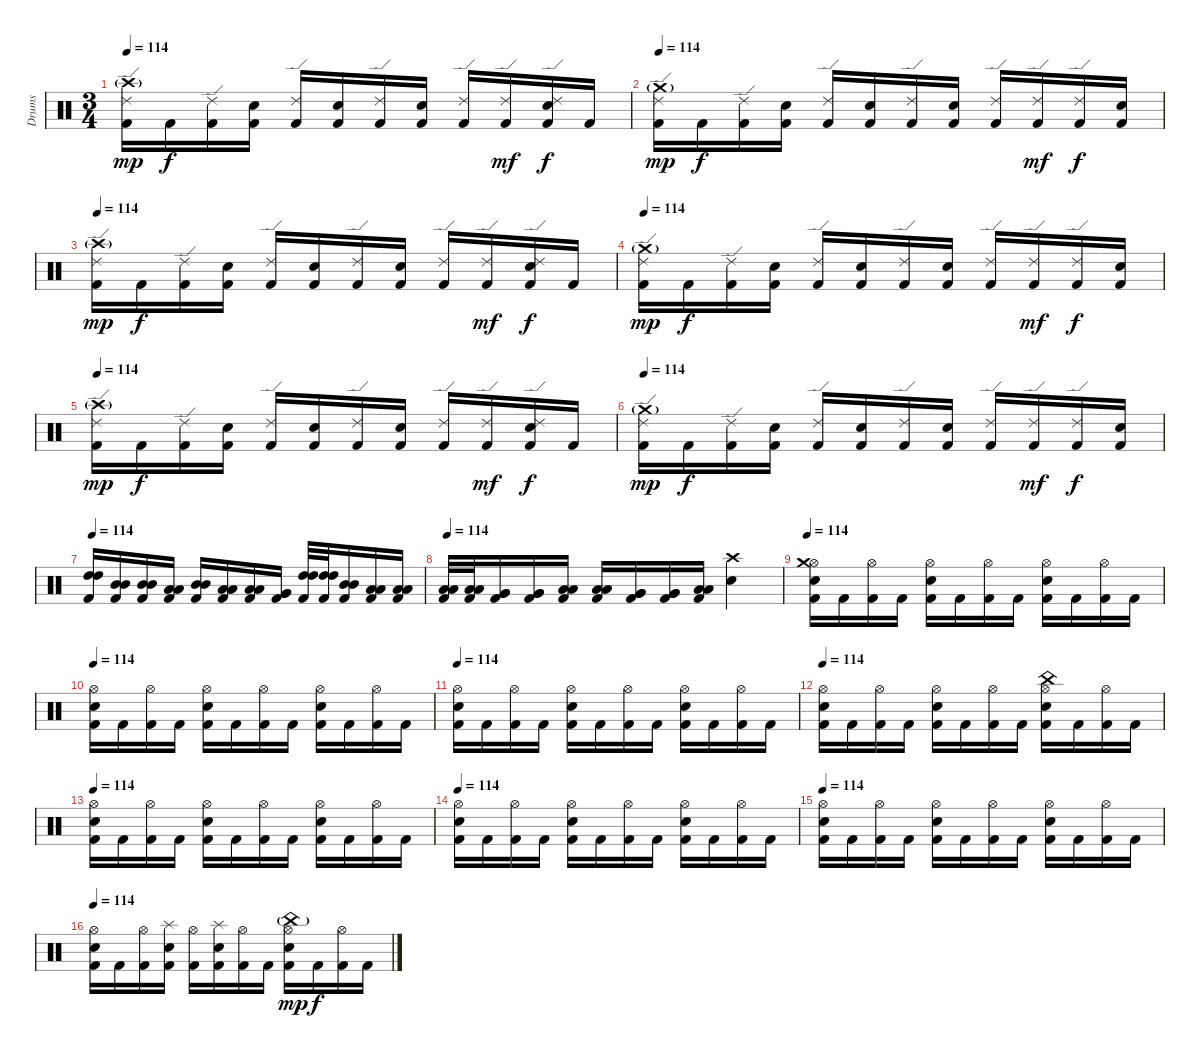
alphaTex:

\track ("Drums" "Drums") {instrument percussion}
\staff {score}
\articulation defaults
\ts (3 4)
\tempo 114
\clef neutral
\ks c
("Kick (hit) 2" "Ride (edge) 2" "Crash high (hit)"{g}).16{dy mp} "Kick (hit) 2".16{dy f} ("Kick (hit) 2" "Ride (edge) 2").16 ("Kick (hit) 2" "Electric Snare (hit)").16 ("Kick (hit) 2" "Ride (edge) 2").16 ("Kick (hit) 2" "Electric Snare (hit)").16 ("Kick (hit) 2" "Ride (edge) 2").16 ("Kick (hit) 2" "Electric Snare (hit)").16 ("Kick (hit) 2" "Ride (edge) 2").16 ("Kick (hit) 2" "Ride (edge) 2").16{dy mf} ("Kick (hit) 2" "Electric Snare (hit)" "Ride (edge) 2").16{dy f} "Kick (hit) 2".16 |
\tempo 114
("Kick (hit) 2" "Ride (edge) 2" "Crash medium (hit)"{g}).16{dy mp} "Kick (hit) 2".16{dy f} ("Kick (hit) 2" "Ride (edge) 2").16 ("Kick (hit) 2" "Electric Snare (hit)").16 ("Kick (hit) 2" "Ride (edge) 2").16 ("Kick (hit) 2" "Electric Snare (hit)").16 ("Kick (hit) 2" "Ride (edge) 2").16 ("Kick (hit) 2" "Electric Snare (hit)").16 ("Kick (hit) 2" "Ride (edge) 2").16 ("Kick (hit) 2" "Ride (edge) 2").16{dy mf} ("Kick (hit) 2" "Ride (edge) 2").16{dy f} ("Kick (hit) 2" "Electric Snare (hit)").16 |
\tempo 114
("Kick (hit) 2" "Ride (edge) 2" "Crash high (hit)"{g}).16{dy mp} "Kick (hit) 2".16{dy f} ("Kick (hit) 2" "Ride (edge) 2").16 ("Kick (hit) 2" "Electric Snare (hit)").16 ("Kick (hit) 2" "Ride (edge) 2").16 ("Kick (hit) 2" "Electric Snare (hit)").16 ("Kick (hit) 2" "Ride (edge) 2").16 ("Kick (hit) 2" "Electric Snare (hit)").16 ("Kick (hit) 2" "Ride (edge) 2").16 ("Kick (hit) 2" "Ride (edge) 2").16{dy mf} ("Kick (hit) 2" "Electric Snare (hit)" "Ride (edge) 2").16{dy f} "Kick (hit) 2".16 |
\tempo 114
("Kick (hit) 2" "Ride (edge) 2" "Crash medium (hit)"{g}).16{dy mp} "Kick (hit) 2".16{dy f} ("Kick (hit) 2" "Ride (edge) 2").16 ("Kick (hit) 2" "Electric Snare (hit)").16 ("Kick (hit) 2" "Ride (edge) 2").16 ("Kick (hit) 2" "Electric Snare (hit)").16 ("Kick (hit) 2" "Ride (edge) 2").16 ("Kick (hit) 2" "Electric Snare (hit)").16 ("Kick (hit) 2" "Ride (edge) 2").16 ("Kick (hit) 2" "Ride (edge) 2").16{dy mf} ("Kick (hit) 2" "Ride (edge) 2").16{dy f} ("Kick (hit) 2" "Electric Snare (hit)").16 |
\tempo 114
("Kick (hit) 2" "Ride (edge) 2" "Crash high (hit)"{g}).16{dy mp} "Kick (hit) 2".16{dy f} ("Kick (hit) 2" "Ride (edge) 2").16 ("Kick (hit) 2" "Electric Snare (hit)").16 ("Kick (hit) 2" "Ride (edge) 2").16 ("Kick (hit) 2" "Electric Snare (hit)").16 ("Kick (hit) 2" "Ride (edge) 2").16 ("Kick (hit) 2" "Electric Snare (hit)").16 ("Kick (hit) 2" "Ride (edge) 2").16 ("Kick (hit) 2" "Ride (edge) 2").16{dy mf} ("Kick (hit) 2" "Electric Snare (hit)" "Ride (edge) 2").16{dy f} "Kick (hit) 2".16 |
\tempo 114
("Kick (hit) 2" "Ride (edge) 2" "Crash medium (hit)"{g}).16{dy mp} "Kick (hit) 2".16{dy f} ("Kick (hit) 2" "Ride (edge) 2").16 ("Kick (hit) 2" "Electric Snare (hit)").16 ("Kick (hit) 2" "Ride (edge) 2").16 ("Kick (hit) 2" "Electric Snare (hit)").16 ("Kick (hit) 2" "Ride (edge) 2").16 ("Kick (hit) 2" "Electric Snare (hit)").16 ("Kick (hit) 2" "Ride (edge) 2").16 ("Kick (hit) 2" "Ride (edge) 2").16{dy mf} ("Kick (hit) 2" "Ride (edge) 2").16{dy f} ("Kick (hit) 2" "Electric Snare (hit)").16 |
\tempo 114
("Kick (hit) 2" "High Tom (hit)" "High Tom (hit)").16 ("Kick (hit) 2" "Mid Tom (hit)" "Mid Tom (hit)").16 ("Kick (hit) 2" "Mid Tom (hit)" "Mid Tom (hit)").16 ("Kick (hit) 2" "Low Tom (hit)" "Low Tom (hit)").16 ("Kick (hit) 2" "Mid Tom (hit)" "Mid Tom (hit)").16 ("Kick (hit) 2" "Low Tom (hit)" "Low Tom (hit)").16 ("Kick (hit) 2" "Low Tom (hit)" "Low Tom (hit)").16 ("Kick (hit) 2" "Very Low Tom (hit)" "Very Low Tom (hit)").16 ("Kick (hit) 2" "High Tom (hit)" "High Tom (hit)").32 ("Kick (hit) 2" "High Tom (hit)" "High Tom (hit)").32 ("Kick (hit) 2" "Mid Tom (hit)" "Mid Tom (hit)").16 ("Kick (hit) 2" "Low Tom (hit)" "Low Tom (hit)").16 ("Kick (hit) 2" "Low Tom (hit)" "Low Tom (hit)").16 |
\tempo 114
("Kick (hit) 2" "Low Tom (hit)" "Low Tom (hit)").32 ("Kick (hit) 2" "Low Tom (hit)" "Low Tom (hit)").32 ("Kick (hit) 2" "Very Low Tom (hit)" "Very Low Tom (hit)").16 ("Kick (hit) 2" "Very Low Tom (hit)" "Very Low Tom (hit)").16 ("Kick (hit) 2" "Low Floor Tom (hit)" "Low Floor Tom (hit)").16 ("Kick (hit) 2" "Low Tom (hit)" "Low Tom (hit)").16 ("Kick (hit) 2" "Very Low Tom (hit)" "Very Low Tom (hit)").16 ("Kick (hit) 2" "Very Low Tom (hit)" "Very Low Tom (hit)").16 ("Kick (hit) 2" "Low Floor Tom (hit)" "Low Floor Tom (hit)").16 ("Electric Snare (hit)" "Crash high (hit)").4 |
\tempo 114
("Kick (hit) 2" "Electric Snare (hit)" "Hi-Hat (open)" "Crash medium (hit)").16 "Kick (hit) 2".16 ("Kick (hit) 2" "Hi-Hat (open)").16 "Kick (hit) 2".16 ("Kick (hit) 2" "Electric Snare (hit)" "Hi-Hat (open)").16 "Kick (hit) 2".16 ("Kick (hit) 2" "Hi-Hat (open)").16 "Kick (hit) 2".16 ("Kick (hit) 2" "Electric Snare (hit)" "Hi-Hat (open)").16 "Kick (hit) 2".16 ("Kick (hit) 2" "Hi-Hat (open)").16 "Kick (hit) 2".16 |
\tempo 114
("Kick (hit) 2" "Electric Snare (hit)" "Hi-Hat (open)").16 "Kick (hit) 2".16 ("Kick (hit) 2" "Hi-Hat (open)").16 "Kick (hit) 2".16 ("Kick (hit) 2" "Electric Snare (hit)" "Hi-Hat (open)").16 "Kick (hit) 2".16 ("Kick (hit) 2" "Hi-Hat (open)").16 "Kick (hit) 2".16 ("Kick (hit) 2" "Electric Snare (hit)" "Hi-Hat (open)").16 "Kick (hit) 2".16 ("Kick (hit) 2" "Hi-Hat (open)").16 "Kick (hit) 2".16 |
\tempo 114
("Kick (hit) 2" "Electric Snare (hit)" "Hi-Hat (open)").16 "Kick (hit) 2".16 ("Kick (hit) 2" "Hi-Hat (open)").16 "Kick (hit) 2".16 ("Kick (hit) 2" "Electric Snare (hit)" "Hi-Hat (open)").16 "Kick (hit) 2".16 ("Kick (hit) 2" "Hi-Hat (open)").16 "Kick (hit) 2".16 ("Kick (hit) 2" "Electric Snare (hit)" "Hi-Hat (open)").16 "Kick (hit) 2".16 ("Kick (hit) 2" "Hi-Hat (open)").16 "Kick (hit) 2".16 |
\tempo 114
("Kick (hit) 2" "Electric Snare (hit)" "Hi-Hat (open)").16 "Kick (hit) 2".16 ("Kick (hit) 2" "Hi-Hat (open)").16 "Kick (hit) 2".16 ("Kick (hit) 2" "Electric Snare (hit)" "Hi-Hat (open)").16 "Kick (hit) 2".16 ("Kick (hit) 2" "Hi-Hat (open)").16 "Kick (hit) 2".16 ("Kick (hit) 2" "Electric Snare (hit)" "Hi-Hat (open)" "China (hit)").16 "Kick (hit) 2".16 ("Kick (hit) 2" "Hi-Hat (open)").16 "Kick (hit) 2".16 |
\tempo 114
("Kick (hit) 2" "Electric Snare (hit)" "Hi-Hat (open)").16 "Kick (hit) 2".16 ("Kick (hit) 2" "Hi-Hat (open)").16 "Kick (hit) 2".16 ("Kick (hit) 2" "Electric Snare (hit)" "Hi-Hat (open)").16 "Kick (hit) 2".16 ("Kick (hit) 2" "Hi-Hat (open)").16 "Kick (hit) 2".16 ("Kick (hit) 2" "Electric Snare (hit)" "Hi-Hat (open)").16 "Kick (hit) 2".16 ("Kick (hit) 2" "Hi-Hat (open)").16 "Kick (hit) 2".16 |
\tempo 114
("Kick (hit) 2" "Electric Snare (hit)" "Hi-Hat (open)").16 "Kick (hit) 2".16 ("Kick (hit) 2" "Hi-Hat (open)").16 "Kick (hit) 2".16 ("Kick (hit) 2" "Electric Snare (hit)" "Hi-Hat (open)").16 "Kick (hit) 2".16 ("Kick (hit) 2" "Hi-Hat (open)").16 "Kick (hit) 2".16 ("Kick (hit) 2" "Electric Snare (hit)" "Hi-Hat (open)").16 "Kick (hit) 2".16 ("Kick (hit) 2" "Hi-Hat (open)").16 "Kick (hit) 2".16 |
\tempo 114
("Kick (hit) 2" "Electric Snare (hit)" "Hi-Hat (open)").16 "Kick (hit) 2".16 ("Kick (hit) 2" "Hi-Hat (open)").16 "Kick (hit) 2".16 ("Kick (hit) 2" "Electric Snare (hit)" "Hi-Hat (open)").16 "Kick (hit) 2".16 ("Kick (hit) 2" "Hi-Hat (open)").16 "Kick (hit) 2".16 ("Kick (hit) 2" "Electric Snare (hit)" "Hi-Hat (open)").16 "Kick (hit) 2".16 ("Kick (hit) 2" "Hi-Hat (open)").16 "Kick (hit) 2".16 |
\tempo 114
("Kick (hit) 2" "Electric Snare (hit)" "Hi-Hat (open)").16 "Kick (hit) 2".16 ("Kick (hit) 2" "Hi-Hat (open)").16 ("Kick (hit) 2" "Electric Snare (hit)" "Splash (hit)").16 ("Kick (hit) 2" "Hi-Hat (open)").16 ("Kick (hit) 2" "Electric Snare (hit)" "Splash (hit)").16 ("Kick (hit) 2" "Hi-Hat (open)").16 "Kick (hit) 2".16 ("Kick (hit) 2" "Electric Snare (hit)" "Hi-Hat (open)" "China (hit)"{g}).16{dy mp} "Kick (hit) 2".16{dy f} ("Kick (hit) 2" "Hi-Hat (open)").16 "Kick (hit) 2".16
